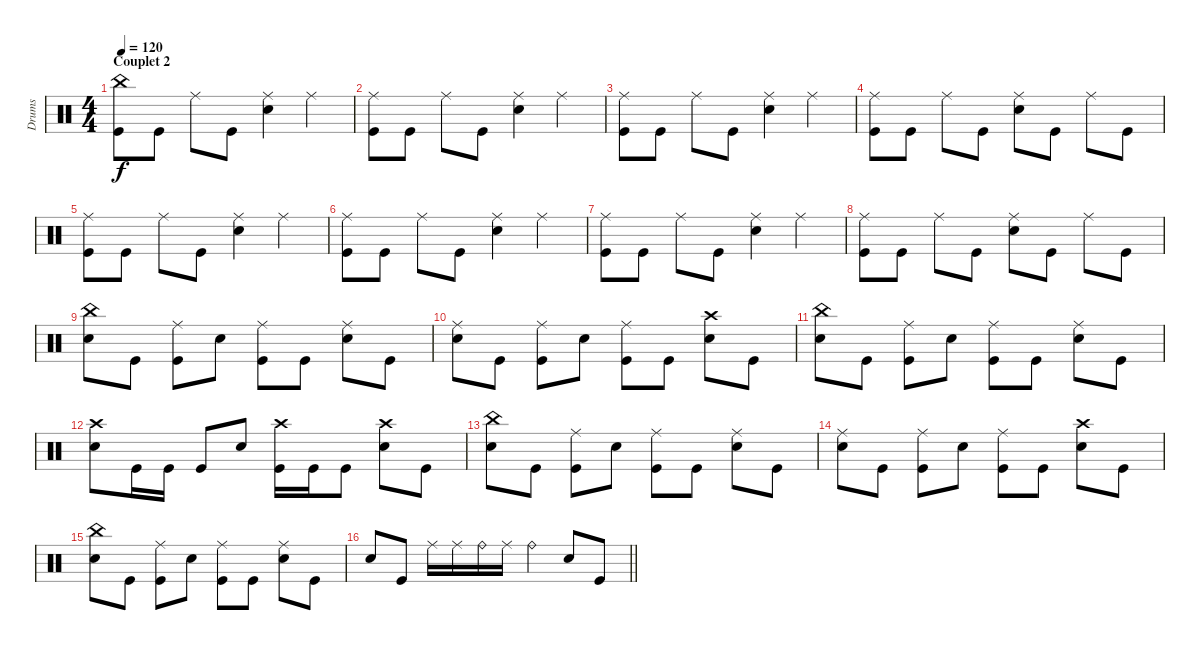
\track ("Drums" "Drums") {instrument percussion}
\staff {score}
\articulation defaults
\ts (4 4)
\section ("" "Couplet 2")
\tempo 120
\clef neutral
\ks c
("China (hit)" "Kick (hit)").8{dy f} "Kick (hit)".8 "Ride (middle)".8 "Kick (hit)".8 ("Ride (middle)" "Electric Snare (hit)").4 "Ride (middle)".4 |
("Ride (middle)" "Kick (hit)").8 "Kick (hit)".8 "Ride (middle)".8 "Kick (hit)".8 ("Ride (middle)" "Electric Snare (hit)").4 "Ride (middle)".4 |
("Ride (middle)" "Kick (hit)").8 "Kick (hit)".8 "Ride (middle)".8 "Kick (hit)".8 ("Ride (middle)" "Electric Snare (hit)").4 "Ride (middle)".4 |
("Ride (middle)" "Kick (hit)").8 "Kick (hit)".8 "Ride (middle)".8 "Kick (hit)".8 ("Ride (middle)" "Electric Snare (hit)").8 "Kick (hit)".8 "Ride (middle)".8 "Kick (hit)".8 |
("Ride (middle)" "Kick (hit)").8 "Kick (hit)".8 "Ride (middle)".8 "Kick (hit)".8 ("Ride (middle)" "Electric Snare (hit)").4 "Ride (middle)".4 |
("Ride (middle)" "Kick (hit)").8 "Kick (hit)".8 "Ride (middle)".8 "Kick (hit)".8 ("Ride (middle)" "Electric Snare (hit)").4 "Ride (middle)".4 |
("Ride (middle)" "Kick (hit)").8 "Kick (hit)".8 "Ride (middle)".8 "Kick (hit)".8 ("Ride (middle)" "Electric Snare (hit)").4 "Ride (middle)".4 |
("Ride (middle)" "Kick (hit)").8 "Kick (hit)".8 "Ride (middle)".8 "Kick (hit)".8 ("Ride (middle)" "Electric Snare (hit)").8 "Kick (hit)".8 "Ride (middle)".8 "Kick (hit)".8 |
("China (hit)" "Electric Snare (hit)").8 "Kick (hit)".8 ("Ride (middle)" "Kick (hit)").8 "Electric Snare (hit)".8 ("Ride (middle)" "Kick (hit)").8 "Kick (hit)".8 ("Ride (middle)" "Electric Snare (hit)").8 "Kick (hit)".8 |
("Ride (middle)" "Electric Snare (hit)").8 "Kick (hit)".8 ("Ride (middle)" "Kick (hit)").8 "Electric Snare (hit)".8 ("Ride (middle)" "Kick (hit)").8 "Kick (hit)".8 ("Crash high (hit)" "Electric Snare (hit)").8 "Kick (hit)".8 |
("China (hit)" "Electric Snare (hit)").8 "Kick (hit)".8 ("Ride (middle)" "Kick (hit)").8 "Electric Snare (hit)".8 ("Ride (middle)" "Kick (hit)").8 "Kick (hit)".8 ("Ride (middle)" "Electric Snare (hit)").8 "Kick (hit)".8 |
("Crash high (hit)" "Electric Snare (hit)").8 "Kick (hit)".16 "Kick (hit)".16 "Kick (hit)".8 "Electric Snare (hit)".8 ("Crash high (hit)" "Kick (hit)").16 "Kick (hit)".16 "Kick (hit)".8 ("Crash high (hit)" "Electric Snare (hit)").8 "Kick (hit)".8 |
("China (hit)" "Electric Snare (hit)").8 "Kick (hit)".8 ("Ride (middle)" "Kick (hit)").8 "Electric Snare (hit)".8 ("Ride (middle)" "Kick (hit)").8 "Kick (hit)".8 ("Ride (middle)" "Electric Snare (hit)").8 "Kick (hit)".8 |
("Ride (middle)" "Electric Snare (hit)").8 "Kick (hit)".8 ("Ride (middle)" "Kick (hit)").8 "Electric Snare (hit)".8 ("Ride (middle)" "Kick (hit)").8 "Kick (hit)".8 ("Crash high (hit)" "Electric Snare (hit)").8 "Kick (hit)".8 |
("China (hit)" "Electric Snare (hit)").8 "Kick (hit)".8 ("Ride (middle)" "Kick (hit)").8 "Electric Snare (hit)".8 ("Ride (middle)" "Kick (hit)").8 "Kick (hit)".8 ("Ride (middle)" "Electric Snare (hit)").8 "Kick (hit)".8 |
\barLineRight lightlight "Electric Snare (hit)".8 "Kick (hit)".8 "Ride (middle)".16 "Ride (middle)".16 "Ride (bell)".16 "Ride (middle)".16 "Ride (bell)".4 "Electric Snare (hit)".8 "Kick (hit)".8
